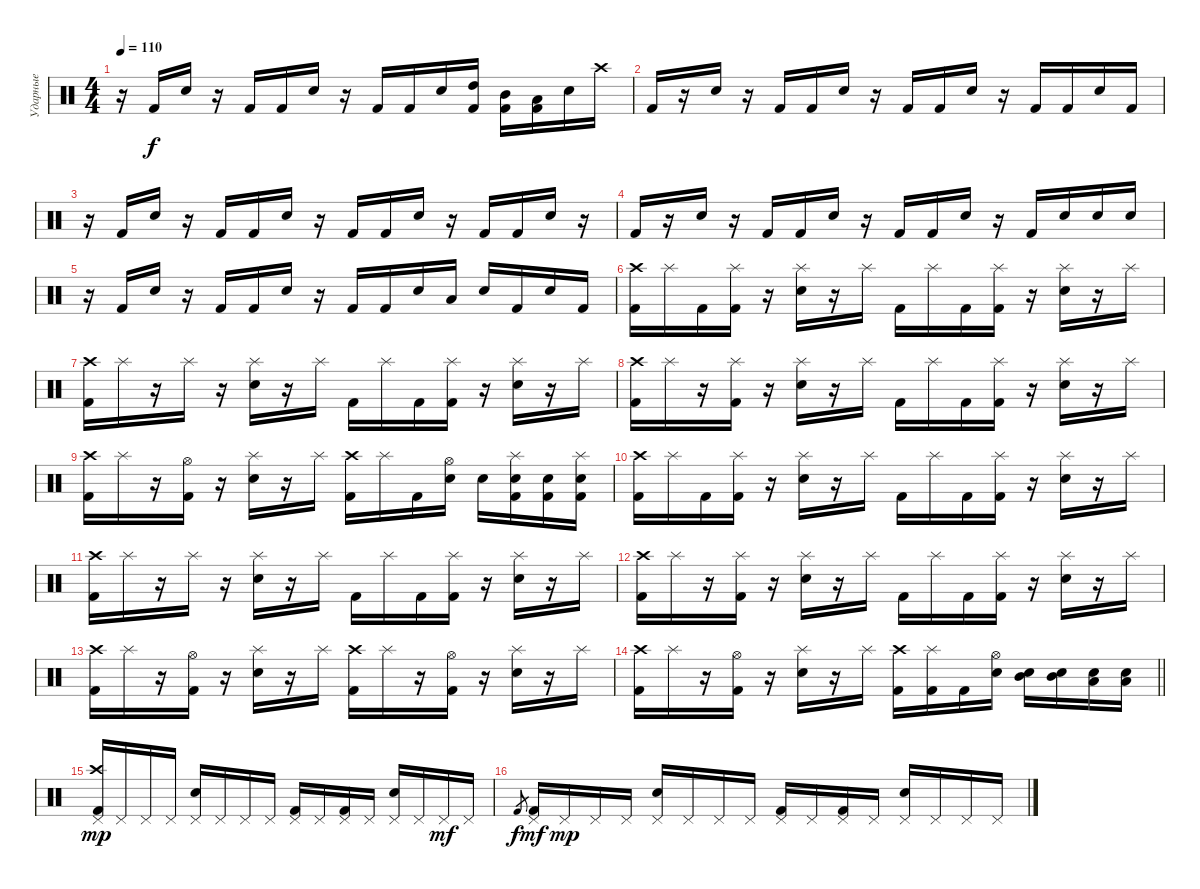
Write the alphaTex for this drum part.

\track ("Ударные" "Ударные") {instrument percussion}
\staff {score}
\articulation defaults
\ts (4 4)
\tempo 110
\clef neutral
\ks c
r.16{dy f} "Kick (hit) 2".16 "Electric Snare (hit)".16 r.16 "Kick (hit) 2".16 "Kick (hit) 2".16 "Electric Snare (hit)".16 r.16 "Kick (hit) 2".16 "Kick (hit) 2".16 "Electric Snare (hit)".16 ("High Tom (hit)" "Kick (hit) 2").16 ("Mid Tom (hit)" "Kick (hit) 2").16 ("Low Tom (hit)" "Kick (hit) 2").16 "Electric Snare (hit)".16 "Crash high (hit)".16 |
"Kick (hit) 2".16 r.16 "Electric Snare (hit)".16 r.16 "Kick (hit) 2".16 "Kick (hit) 2".16 "Electric Snare (hit)".16 r.16 "Kick (hit) 2".16 "Kick (hit) 2".16 "Electric Snare (hit)".16 r.16 "Kick (hit) 2".16 "Kick (hit) 2".16 "Electric Snare (hit)".16 "Kick (hit) 2".16 |
r.16 "Kick (hit) 2".16 "Electric Snare (hit)".16 r.16 "Kick (hit) 2".16 "Kick (hit) 2".16 "Electric Snare (hit)".16 r.16 "Kick (hit) 2".16 "Kick (hit) 2".16 "Electric Snare (hit)".16 r.16 "Kick (hit) 2".16 "Kick (hit) 2".16 "Electric Snare (hit)".16 r.16 |
"Kick (hit) 2".16 r.16 "Electric Snare (hit)".16 r.16 "Kick (hit) 2".16 "Kick (hit) 2".16 "Electric Snare (hit)".16 r.16 "Kick (hit) 2".16 "Kick (hit) 2".16 "Electric Snare (hit)".16 r.16 "Kick (hit) 2".16 "Electric Snare (hit)".16 "Electric Snare (hit)".16 "Electric Snare (hit)".16 |
r.16 "Kick (hit) 2".16 "Electric Snare (hit)".16 r.16 "Kick (hit) 2".16 "Kick (hit) 2".16 "Electric Snare (hit)".16 r.16 "Kick (hit) 2".16 "Kick (hit) 2".16 "Electric Snare (hit)".16 "Low Tom (hit)".16 "Electric Snare (hit)".16 "Kick (hit) 2".16 "Electric Snare (hit)".16 "Kick (hit) 2".16 |
("Crash high (hit)" "Kick (hit) 2").16 "Splash (hit)".16 "Kick (hit) 2".16 ("Splash (hit)" "Kick (hit) 2").16 r.16 ("Splash (hit)" "Electric Snare (hit)").16 r.16 "Splash (hit)".16 "Kick (hit) 2".16 "Splash (hit)".16 "Kick (hit) 2".16 ("Splash (hit)" "Kick (hit) 2").16 r.16 ("Splash (hit)" "Electric Snare (hit)").16 r.16 "Splash (hit)".16 |
("Crash high (hit)" "Kick (hit) 2").16 "Splash (hit)".16 r.16 "Splash (hit)".16 r.16 ("Splash (hit)" "Electric Snare (hit)").16 r.16 "Splash (hit)".16 "Kick (hit) 2".16 "Splash (hit)".16 "Kick (hit) 2".16 ("Splash (hit)" "Kick (hit) 2").16 r.16 ("Splash (hit)" "Electric Snare (hit)").16 r.16 "Splash (hit)".16 |
("Crash high (hit)" "Kick (hit) 2").16 "Splash (hit)".16 r.16 ("Splash (hit)" "Kick (hit) 2").16 r.16 ("Splash (hit)" "Electric Snare (hit)").16 r.16 "Splash (hit)".16 "Kick (hit) 2".16 "Splash (hit)".16 "Kick (hit) 2".16 ("Splash (hit)" "Kick (hit) 2").16 r.16 ("Splash (hit)" "Electric Snare (hit)").16 r.16 "Splash (hit)".16 |
("Crash high (hit)" "Kick (hit) 2").16 "Splash (hit)".16 r.16 ("Hi-Hat (open)" "Kick (hit) 2").16 r.16 ("Splash (hit)" "Electric Snare (hit)").16 r.16 "Splash (hit)".16 ("Crash high (hit)" "Kick (hit) 2").16 "Splash (hit)".16 "Kick (hit) 2".16 ("Hi-Hat (open)" "Electric Snare (hit)").16 "Electric Snare (hit)".16 ("Splash (hit)" "Electric Snare (hit)" "Kick (hit) 2").16 ("Electric Snare (hit)" "Kick (hit) 2").16 ("Splash (hit)" "Electric Snare (hit)" "Kick (hit) 2").16 |
("Crash high (hit)" "Kick (hit) 2").16 "Splash (hit)".16 "Kick (hit) 2".16 ("Splash (hit)" "Kick (hit) 2").16 r.16 ("Splash (hit)" "Electric Snare (hit)").16 r.16 "Splash (hit)".16 "Kick (hit) 2".16 "Splash (hit)".16 "Kick (hit) 2".16 ("Splash (hit)" "Kick (hit) 2").16 r.16 ("Splash (hit)" "Electric Snare (hit)").16 r.16 "Splash (hit)".16 |
("Crash high (hit)" "Kick (hit) 2").16 "Splash (hit)".16 r.16 "Splash (hit)".16 r.16 ("Splash (hit)" "Electric Snare (hit)").16 r.16 "Splash (hit)".16 "Kick (hit) 2".16 "Splash (hit)".16 "Kick (hit) 2".16 ("Splash (hit)" "Kick (hit) 2").16 r.16 ("Splash (hit)" "Electric Snare (hit)").16 r.16 "Splash (hit)".16 |
("Crash high (hit)" "Kick (hit) 2").16 "Splash (hit)".16 r.16 ("Splash (hit)" "Kick (hit) 2").16 r.16 ("Splash (hit)" "Electric Snare (hit)").16 r.16 "Splash (hit)".16 "Kick (hit) 2".16 "Splash (hit)".16 "Kick (hit) 2".16 ("Splash (hit)" "Kick (hit) 2").16 r.16 ("Splash (hit)" "Electric Snare (hit)").16 r.16 "Splash (hit)".16 |
("Crash high (hit)" "Kick (hit) 2").16 "Splash (hit)".16 r.16 ("Hi-Hat (open)" "Kick (hit) 2").16 r.16 ("Splash (hit)" "Electric Snare (hit)").16 r.16 "Splash (hit)".16 ("Crash high (hit)" "Kick (hit) 2").16 "Splash (hit)".16 r.16 ("Hi-Hat (open)" "Kick (hit) 2").16 r.16 ("Splash (hit)" "Electric Snare (hit)").16 r.16 "Splash (hit)".16 |
\barLineRight lightlight
("Crash high (hit)" "Kick (hit) 2").16 "Splash (hit)".16 r.16 ("Hi-Hat (open)" "Kick (hit) 2").16 r.16 ("Splash (hit)" "Electric Snare (hit)").16 r.16 "Splash (hit)".16 ("Crash high (hit)" "Kick (hit) 2").16 ("Splash (hit)" "Kick (hit) 2").16 "Kick (hit) 2".16 ("Hi-Hat (open)" "Electric Snare (hit)").16 ("Mid Tom (hit)" "Electric Snare (hit)").16 ("Mid Tom (hit)" "Electric Snare (hit)").16 ("Low Tom (hit)" "Electric Snare (hit)").16 ("Low Tom (hit)" "Electric Snare (hit)").16 |
("Pedal Hi-Hat (hit)" "Crash high (hit)" "Kick (hit) 2").16{dy mp} "Pedal Hi-Hat (hit)".16 "Pedal Hi-Hat (hit)".16 "Pedal Hi-Hat (hit)".16 ("Pedal Hi-Hat (hit)" "Electric Snare (hit)").16 "Pedal Hi-Hat (hit)".16 "Pedal Hi-Hat (hit)".16 "Pedal Hi-Hat (hit)".16 ("Pedal Hi-Hat (hit)" "Kick (hit) 2").16 "Pedal Hi-Hat (hit)".16 ("Pedal Hi-Hat (hit)" "Kick (hit) 2").16 "Pedal Hi-Hat (hit)".16 ("Pedal Hi-Hat (hit)" "Electric Snare (hit)").16 "Pedal Hi-Hat (hit)".16 "Pedal Hi-Hat (hit)".16{dy mf} "Pedal Hi-Hat (hit)".16 |
"Kick (hit) 2".8{gr dy f} ("Pedal Hi-Hat (hit)" "Kick (hit) 2").16{dy mf} "Pedal Hi-Hat (hit)".16{dy mp} "Pedal Hi-Hat (hit)".16 "Pedal Hi-Hat (hit)".16 ("Pedal Hi-Hat (hit)" "Electric Snare (hit)").16 "Pedal Hi-Hat (hit)".16 "Pedal Hi-Hat (hit)".16 "Pedal Hi-Hat (hit)".16 ("Pedal Hi-Hat (hit)" "Kick (hit) 2").16 "Pedal Hi-Hat (hit)".16 ("Pedal Hi-Hat (hit)" "Kick (hit) 2").16 "Pedal Hi-Hat (hit)".16 ("Pedal Hi-Hat (hit)" "Electric Snare (hit)").16 "Pedal Hi-Hat (hit)".16 "Pedal Hi-Hat (hit)".16 "Pedal Hi-Hat (hit)".16
